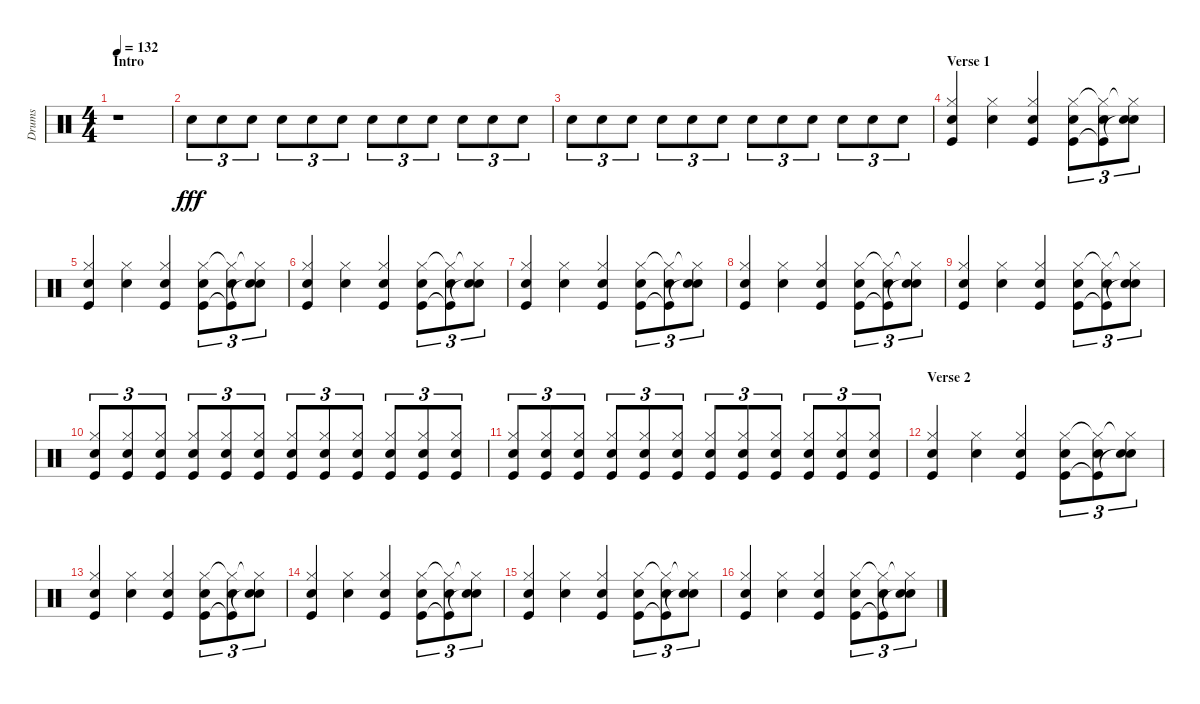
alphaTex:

\track ("Drums" "Drums") {instrument percussion}
\staff {score}
\articulation defaults
\ts (4 4)
\section ("" "Intro")
\tempo 132
\clef neutral
\ks c
r.1{dy fff volume 7} |
"Snare (hit) 2".8{tu (3 2) volume 16} "Snare (hit) 2".8{tu (3 2)} "Snare (hit) 2".8{tu (3 2)} "Snare (hit) 2".8{tu (3 2)} "Snare (hit) 2".8{tu (3 2)} "Snare (hit) 2".8{tu (3 2)} "Snare (hit) 2".8{tu (3 2)} "Snare (hit) 2".8{tu (3 2)} "Snare (hit) 2".8{tu (3 2)} "Snare (hit) 2".8{tu (3 2)} "Snare (hit) 2".8{tu (3 2)} "Snare (hit) 2".8{tu (3 2)} |
"Snare (hit) 2".8{tu (3 2)} "Snare (hit) 2".8{tu (3 2)} "Snare (hit) 2".8{tu (3 2)} "Snare (hit) 2".8{tu (3 2)} "Snare (hit) 2".8{tu (3 2)} "Snare (hit) 2".8{tu (3 2)} "Snare (hit) 2".8{tu (3 2)} "Snare (hit) 2".8{tu (3 2)} "Snare (hit) 2".8{tu (3 2)} "Snare (hit) 2".8{tu (3 2)} "Snare (hit) 2".8{tu (3 2)} "Snare (hit) 2".8{tu (3 2)} |
\section ("" "Verse 1")
("Hi-Hat (closed)" "Snare (hit) 2" "Kick (hit)").4 ("Hi-Hat (closed)" "Snare (hit) 2").4 ("Hi-Hat (closed)" "Snare (hit) 2" "Kick (hit)").4 ("Hi-Hat (closed)" "Snare (hit) 2" "Kick (hit)").8{tu (3 2)} ("Hi-Hat (closed)"{t} "Snare (hit) 2" "Kick (hit)"{t}).8{tu (3 2)} ("Hi-Hat (closed)"{t} "Snare (hit) 2" "Snare (hit)"{t}).8{tu (3 2)} |
("Hi-Hat (closed)" "Snare (hit) 2" "Kick (hit)").4 ("Hi-Hat (closed)" "Snare (hit) 2").4 ("Hi-Hat (closed)" "Snare (hit) 2" "Kick (hit)").4 ("Hi-Hat (closed)" "Snare (hit) 2" "Kick (hit)").8{tu (3 2)} ("Hi-Hat (closed)"{t} "Snare (hit) 2" "Kick (hit)"{t}).8{tu (3 2)} ("Hi-Hat (closed)"{t} "Snare (hit) 2" "Snare (hit)"{t}).8{tu (3 2)} |
("Hi-Hat (closed)" "Snare (hit) 2" "Kick (hit)").4 ("Hi-Hat (closed)" "Snare (hit) 2").4 ("Hi-Hat (closed)" "Snare (hit) 2" "Kick (hit)").4 ("Hi-Hat (closed)" "Snare (hit) 2" "Kick (hit)").8{tu (3 2)} ("Hi-Hat (closed)"{t} "Snare (hit) 2" "Kick (hit)"{t}).8{tu (3 2)} ("Hi-Hat (closed)"{t} "Snare (hit) 2" "Snare (hit)"{t}).8{tu (3 2)} |
("Hi-Hat (closed)" "Snare (hit) 2" "Kick (hit)").4 ("Hi-Hat (closed)" "Snare (hit) 2").4 ("Hi-Hat (closed)" "Snare (hit) 2" "Kick (hit)").4 ("Hi-Hat (closed)" "Snare (hit) 2" "Kick (hit)").8{tu (3 2)} ("Hi-Hat (closed)"{t} "Snare (hit) 2" "Kick (hit)"{t}).8{tu (3 2)} ("Hi-Hat (closed)"{t} "Snare (hit) 2" "Snare (hit)"{t}).8{tu (3 2)} |
("Hi-Hat (closed)" "Snare (hit) 2" "Kick (hit)").4 ("Hi-Hat (closed)" "Snare (hit) 2").4 ("Hi-Hat (closed)" "Snare (hit) 2" "Kick (hit)").4 ("Hi-Hat (closed)" "Snare (hit) 2" "Kick (hit)").8{tu (3 2)} ("Hi-Hat (closed)"{t} "Snare (hit) 2" "Kick (hit)"{t}).8{tu (3 2)} ("Hi-Hat (closed)"{t} "Snare (hit) 2" "Snare (hit)"{t}).8{tu (3 2)} |
("Hi-Hat (closed)" "Snare (hit) 2" "Kick (hit)").4 ("Hi-Hat (closed)" "Snare (hit) 2").4 ("Hi-Hat (closed)" "Snare (hit) 2" "Kick (hit)").4 ("Hi-Hat (closed)" "Snare (hit) 2" "Kick (hit)").8{tu (3 2)} ("Hi-Hat (closed)"{t} "Snare (hit) 2" "Kick (hit)"{t}).8{tu (3 2)} ("Hi-Hat (closed)"{t} "Snare (hit) 2" "Snare (hit)"{t}).8{tu (3 2)} |
("Hi-Hat (closed)" "Snare (hit) 2" "Kick (hit)").8{tu (3 2)} ("Hi-Hat (closed)" "Snare (hit) 2" "Kick (hit)").8{tu (3 2)} ("Hi-Hat (closed)" "Snare (hit) 2" "Kick (hit)").8{tu (3 2)} ("Hi-Hat (closed)" "Snare (hit) 2" "Kick (hit)").8{tu (3 2)} ("Hi-Hat (closed)" "Snare (hit) 2" "Kick (hit)").8{tu (3 2)} ("Hi-Hat (closed)" "Snare (hit) 2" "Kick (hit)").8{tu (3 2)} ("Hi-Hat (closed)" "Snare (hit) 2" "Kick (hit)").8{tu (3 2)} ("Hi-Hat (closed)" "Snare (hit) 2" "Kick (hit)").8{tu (3 2)} ("Hi-Hat (closed)" "Snare (hit) 2" "Kick (hit)").8{tu (3 2)} ("Hi-Hat (closed)" "Snare (hit) 2" "Kick (hit)").8{tu (3 2)} ("Hi-Hat (closed)" "Snare (hit) 2" "Kick (hit)").8{tu (3 2)} ("Hi-Hat (closed)" "Snare (hit) 2" "Kick (hit)").8{tu (3 2)} |
("Hi-Hat (closed)" "Snare (hit) 2" "Kick (hit)").8{tu (3 2)} ("Hi-Hat (closed)" "Snare (hit) 2" "Kick (hit)").8{tu (3 2)} ("Hi-Hat (closed)" "Snare (hit) 2" "Kick (hit)").8{tu (3 2)} ("Hi-Hat (closed)" "Snare (hit) 2" "Kick (hit)").8{tu (3 2)} ("Hi-Hat (closed)" "Snare (hit) 2" "Kick (hit)").8{tu (3 2)} ("Hi-Hat (closed)" "Snare (hit) 2" "Kick (hit)").8{tu (3 2)} ("Hi-Hat (closed)" "Snare (hit) 2" "Kick (hit)").8{tu (3 2)} ("Hi-Hat (closed)" "Snare (hit) 2" "Kick (hit)").8{tu (3 2)} ("Hi-Hat (closed)" "Snare (hit) 2" "Kick (hit)").8{tu (3 2)} ("Hi-Hat (closed)" "Snare (hit) 2" "Kick (hit)").8{tu (3 2)} ("Hi-Hat (closed)" "Snare (hit) 2" "Kick (hit)").8{tu (3 2)} ("Hi-Hat (closed)" "Snare (hit) 2" "Kick (hit)").8{tu (3 2)} |
\section ("" "Verse 2")
("Hi-Hat (closed)" "Snare (hit) 2" "Kick (hit)").4 ("Hi-Hat (closed)" "Snare (hit) 2").4 ("Hi-Hat (closed)" "Snare (hit) 2" "Kick (hit)").4 ("Hi-Hat (closed)" "Snare (hit) 2" "Kick (hit)").8{tu (3 2)} ("Hi-Hat (closed)"{t} "Snare (hit) 2" "Kick (hit)"{t}).8{tu (3 2)} ("Hi-Hat (closed)"{t} "Snare (hit) 2" "Snare (hit)"{t}).8{tu (3 2)} |
("Hi-Hat (closed)" "Snare (hit) 2" "Kick (hit)").4 ("Hi-Hat (closed)" "Snare (hit) 2").4 ("Hi-Hat (closed)" "Snare (hit) 2" "Kick (hit)").4 ("Hi-Hat (closed)" "Snare (hit) 2" "Kick (hit)").8{tu (3 2)} ("Hi-Hat (closed)"{t} "Snare (hit) 2" "Kick (hit)"{t}).8{tu (3 2)} ("Hi-Hat (closed)"{t} "Snare (hit) 2" "Snare (hit)"{t}).8{tu (3 2)} |
("Hi-Hat (closed)" "Snare (hit) 2" "Kick (hit)").4 ("Hi-Hat (closed)" "Snare (hit) 2").4 ("Hi-Hat (closed)" "Snare (hit) 2" "Kick (hit)").4 ("Hi-Hat (closed)" "Snare (hit) 2" "Kick (hit)").8{tu (3 2)} ("Hi-Hat (closed)"{t} "Snare (hit) 2" "Kick (hit)"{t}).8{tu (3 2)} ("Hi-Hat (closed)"{t} "Snare (hit) 2" "Snare (hit)"{t}).8{tu (3 2)} |
("Hi-Hat (closed)" "Snare (hit) 2" "Kick (hit)").4 ("Hi-Hat (closed)" "Snare (hit) 2").4 ("Hi-Hat (closed)" "Snare (hit) 2" "Kick (hit)").4 ("Hi-Hat (closed)" "Snare (hit) 2" "Kick (hit)").8{tu (3 2)} ("Hi-Hat (closed)"{t} "Snare (hit) 2" "Kick (hit)"{t}).8{tu (3 2)} ("Hi-Hat (closed)"{t} "Snare (hit) 2" "Snare (hit)"{t}).8{tu (3 2)} |
("Hi-Hat (closed)" "Snare (hit) 2" "Kick (hit)").4 ("Hi-Hat (closed)" "Snare (hit) 2").4 ("Hi-Hat (closed)" "Snare (hit) 2" "Kick (hit)").4 ("Hi-Hat (closed)" "Snare (hit) 2" "Kick (hit)").8{tu (3 2)} ("Hi-Hat (closed)"{t} "Snare (hit) 2" "Kick (hit)"{t}).8{tu (3 2)} ("Hi-Hat (closed)"{t} "Snare (hit) 2" "Snare (hit)"{t}).8{tu (3 2)}
